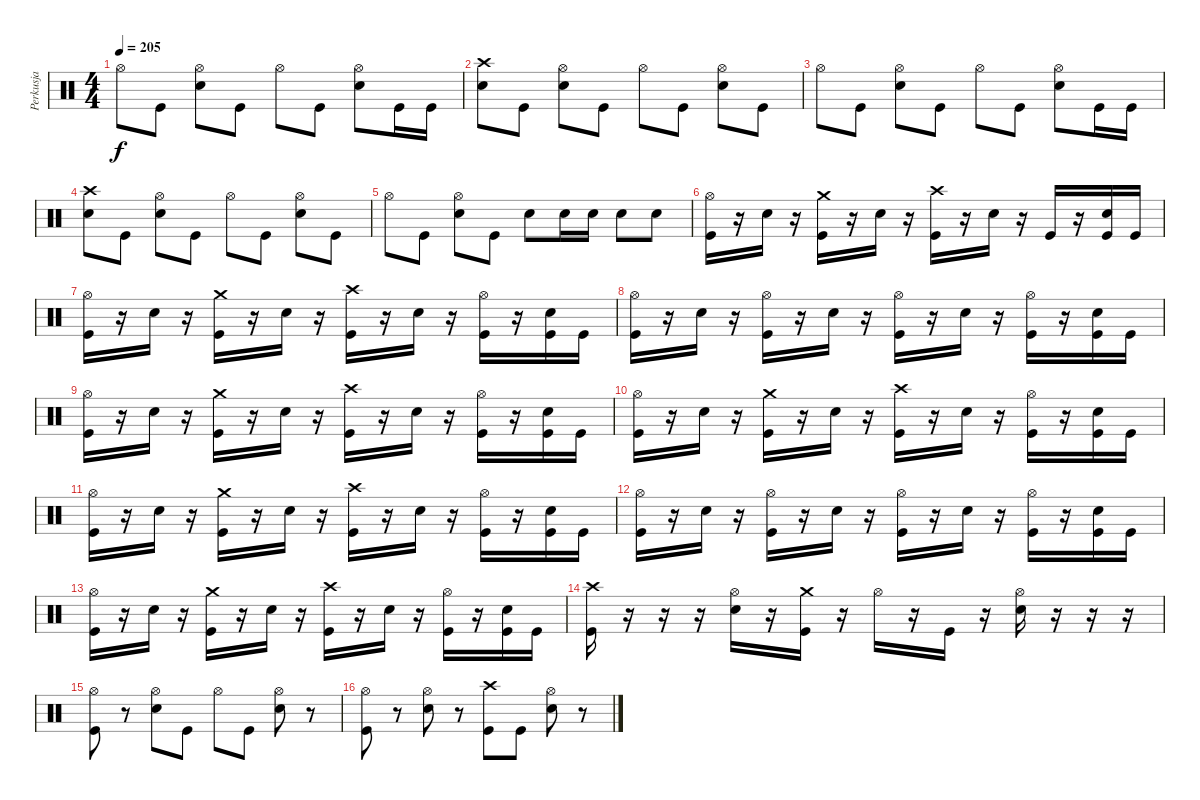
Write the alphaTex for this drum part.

\track ("Perkusja" "Perkusja") {instrument percussion}
\staff {score}
\articulation defaults
\ts (4 4)
\tempo 205
\clef neutral
\ks c "Hi-Hat (open)".8{dy f} "Kick (hit)".8
("Hi-Hat (open)" "Snare (hit) 2").8 "Kick (hit)".8 "Hi-Hat (open)".8 "Kick (hit)".8 ("Hi-Hat (open)" "Snare (hit) 2").8 "Kick (hit)".16 "Kick (hit)".16 |
("Crash high (hit)" "Snare (hit) 2").8 "Kick (hit)".8 ("Hi-Hat (open)" "Snare (hit) 2").8 "Kick (hit)".8 "Hi-Hat (open)".8 "Kick (hit)".8 ("Hi-Hat (open)" "Snare (hit) 2").8 "Kick (hit)".8 |
"Hi-Hat (open)".8 "Kick (hit)".8 ("Hi-Hat (open)" "Snare (hit) 2").8 "Kick (hit)".8 "Hi-Hat (open)".8 "Kick (hit)".8 ("Hi-Hat (open)" "Snare (hit) 2").8 "Kick (hit)".16 "Kick (hit)".16 |
("Crash high (hit)" "Snare (hit) 2").8 "Kick (hit)".8 ("Hi-Hat (open)" "Snare (hit) 2").8 "Kick (hit)".8 "Hi-Hat (open)".8 "Kick (hit)".8 ("Hi-Hat (open)" "Snare (hit) 2").8 "Kick (hit)".8 |
"Hi-Hat (open)".8 "Kick (hit)".8 ("Hi-Hat (open)" "Snare (hit) 2").8 "Kick (hit)".8 "Snare (hit) 2".8 "Snare (hit) 2".16 "Snare (hit) 2".16 "Snare (hit) 2".8 "Snare (hit) 2".8 |
("Hi-Hat (open)" "Kick (hit)").16 r.16 "Snare (hit) 2".16 r.16 ("Crash medium (hit)" "Kick (hit)").16 r.16 "Snare (hit) 2".16 r.16 ("Crash high (hit)" "Kick (hit)").16 r.16 "Snare (hit) 2".16 r.16 "Kick (hit)".16 r.16 ("Snare (hit) 2" "Kick (hit)").16 "Kick (hit)".16 |
("Hi-Hat (open)" "Kick (hit)").16 r.16 "Snare (hit) 2".16 r.16 ("Crash medium (hit)" "Kick (hit)").16 r.16 "Snare (hit) 2".16 r.16 ("Crash high (hit)" "Kick (hit)").16 r.16 "Snare (hit) 2".16 r.16 ("Hi-Hat (open)" "Kick (hit)").16 r.16 ("Snare (hit) 2" "Kick (hit)").16 "Kick (hit)".16 |
("Hi-Hat (open)" "Kick (hit)").16 r.16 "Snare (hit) 2".16 r.16 ("Hi-Hat (open)" "Kick (hit)").16 r.16 "Snare (hit) 2".16 r.16 ("Hi-Hat (open)" "Kick (hit)").16 r.16 "Snare (hit) 2".16 r.16 ("Hi-Hat (open)" "Kick (hit)").16 r.16 ("Snare (hit) 2" "Kick (hit)").16 "Kick (hit)".16 |
("Hi-Hat (open)" "Kick (hit)").16 r.16 "Snare (hit) 2".16 r.16 ("Crash medium (hit)" "Kick (hit)").16 r.16 "Snare (hit) 2".16 r.16 ("Crash high (hit)" "Kick (hit)").16 r.16 "Snare (hit) 2".16 r.16 ("Hi-Hat (open)" "Kick (hit)").16 r.16 ("Snare (hit) 2" "Kick (hit)").16 "Kick (hit)".16 |
("Hi-Hat (open)" "Kick (hit)").16 r.16 "Snare (hit) 2".16 r.16 ("Crash medium (hit)" "Kick (hit)").16 r.16 "Snare (hit) 2".16 r.16 ("Crash high (hit)" "Kick (hit)").16 r.16 "Snare (hit) 2".16 r.16 ("Hi-Hat (open)" "Kick (hit)").16 r.16 ("Snare (hit) 2" "Kick (hit)").16 "Kick (hit)".16 |
("Hi-Hat (open)" "Kick (hit)").16 r.16 "Snare (hit) 2".16 r.16 ("Crash medium (hit)" "Kick (hit)").16 r.16 "Snare (hit) 2".16 r.16 ("Crash high (hit)" "Kick (hit)").16 r.16 "Snare (hit) 2".16 r.16 ("Hi-Hat (open)" "Kick (hit)").16 r.16 ("Snare (hit) 2" "Kick (hit)").16 "Kick (hit)".16 |
("Hi-Hat (open)" "Kick (hit)").16 r.16 "Snare (hit) 2".16 r.16 ("Hi-Hat (open)" "Kick (hit)").16 r.16 "Snare (hit) 2".16 r.16 ("Hi-Hat (open)" "Kick (hit)").16 r.16 "Snare (hit) 2".16 r.16 ("Hi-Hat (open)" "Kick (hit)").16 r.16 ("Snare (hit) 2" "Kick (hit)").16 "Kick (hit)".16 |
("Hi-Hat (open)" "Kick (hit)").16 r.16 "Snare (hit) 2".16 r.16 ("Crash medium (hit)" "Kick (hit)").16 r.16 "Snare (hit) 2".16 r.16 ("Crash high (hit)" "Kick (hit)").16 r.16 "Snare (hit) 2".16 r.16 ("Hi-Hat (open)" "Kick (hit)").16 r.16 ("Snare (hit) 2" "Kick (hit)").16 "Kick (hit)".16 |
("Crash high (hit)" "Kick (hit)").16 r.16 r.16 r.16 ("Hi-Hat (open)" "Snare (hit) 2").16 r.16 ("Crash medium (hit)" "Kick (hit)").16 r.16 "Hi-Hat (open)".16 r.16 "Kick (hit)".16 r.16 ("Hi-Hat (open)" "Snare (hit) 2").16 r.16 r.16 r.16 |
("Hi-Hat (open)" "Kick (hit)").8 r.8 ("Hi-Hat (open)" "Snare (hit) 2").8 "Kick (hit)".8 "Hi-Hat (open)".8 "Kick (hit)".8 ("Hi-Hat (open)" "Snare (hit) 2").8 r.8 |
("Hi-Hat (open)" "Kick (hit)").8 r.8 ("Hi-Hat (open)" "Snare (hit) 2").8 r.8 ("Crash high (hit)" "Kick (hit)").8 "Kick (hit)".8 ("Hi-Hat (open)" "Snare (hit) 2").8 r.8
